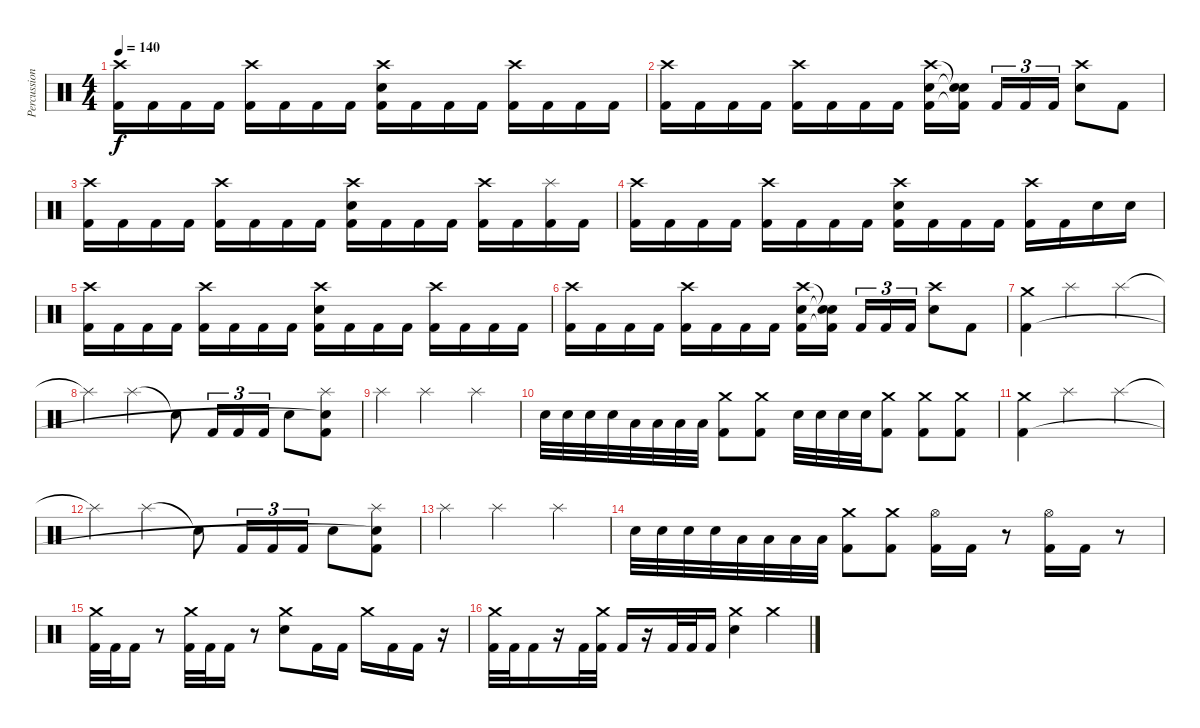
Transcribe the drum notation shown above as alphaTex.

\track ("Percussion" "Percussion") {instrument percussion}
\staff {score}
\articulation defaults
\ts (4 4)
\tempo 140
\clef neutral
\ks c
("Crash high (hit)" "Kick (hit) 2").16{dy f} "Kick (hit) 2".16 "Kick (hit) 2".16 "Kick (hit) 2".16 ("Crash high (hit)" "Kick (hit) 2").16 "Kick (hit) 2".16 "Kick (hit) 2".16 "Kick (hit) 2".16 ("Crash high (hit)" "Electric Snare (hit)" "Kick (hit) 2").16 "Kick (hit) 2".16 "Kick (hit) 2".16 "Kick (hit) 2".16 ("Crash high (hit)" "Kick (hit) 2").16 "Kick (hit) 2".16 "Kick (hit) 2".16 "Kick (hit) 2".16 |
("Crash high (hit)" "Kick (hit) 2").16 "Kick (hit) 2".16 "Kick (hit) 2".16 "Kick (hit) 2".16 ("Crash high (hit)" "Kick (hit) 2").16 "Kick (hit) 2".16 "Kick (hit) 2".16 "Kick (hit) 2".16 ("Crash high (hit)" "Electric Snare (hit)" "Kick (hit) 2").16 ("Snare (hit)"{t} "Snare (hit)"{t} "Kick (hit) 2"{t}).16{beam splitsecondary} "Kick (hit) 2".16{tu (3 2)} "Kick (hit) 2".16{tu (3 2)} "Kick (hit) 2".16{tu (3 2)} ("Crash high (hit)" "Electric Snare (hit)").8 "Kick (hit) 2".8 |
("Crash high (hit)" "Kick (hit) 2").16 "Kick (hit) 2".16 "Kick (hit) 2".16 "Kick (hit) 2".16 ("Crash high (hit)" "Kick (hit) 2").16 "Kick (hit) 2".16 "Kick (hit) 2".16 "Kick (hit) 2".16 ("Crash high (hit)" "Electric Snare (hit)" "Kick (hit) 2").16 "Kick (hit) 2".16 "Kick (hit) 2".16 "Kick (hit) 2".16 ("Crash high (hit)" "Kick (hit) 2").16 "Kick (hit) 2".16 ("Splash (hit)" "Kick (hit) 2").16 "Kick (hit) 2".16 |
("Crash high (hit)" "Kick (hit) 2").16 "Kick (hit) 2".16 "Kick (hit) 2".16 "Kick (hit) 2".16 ("Crash high (hit)" "Kick (hit) 2").16 "Kick (hit) 2".16 "Kick (hit) 2".16 "Kick (hit) 2".16 ("Crash high (hit)" "Electric Snare (hit)" "Kick (hit) 2").16 "Kick (hit) 2".16 "Kick (hit) 2".16 "Kick (hit) 2".16 ("Crash high (hit)" "Kick (hit) 2").16 "Kick (hit) 2".16 "Electric Snare (hit)".16 "Electric Snare (hit)".16 |
("Crash high (hit)" "Kick (hit) 2").16 "Kick (hit) 2".16 "Kick (hit) 2".16 "Kick (hit) 2".16 ("Crash high (hit)" "Kick (hit) 2").16 "Kick (hit) 2".16 "Kick (hit) 2".16 "Kick (hit) 2".16 ("Crash high (hit)" "Electric Snare (hit)" "Kick (hit) 2").16 "Kick (hit) 2".16 "Kick (hit) 2".16 "Kick (hit) 2".16 ("Crash high (hit)" "Kick (hit) 2").16 "Kick (hit) 2".16 "Kick (hit) 2".16 "Kick (hit) 2".16 |
("Crash high (hit)" "Kick (hit) 2").16 "Kick (hit) 2".16 "Kick (hit) 2".16 "Kick (hit) 2".16 ("Crash high (hit)" "Kick (hit) 2").16 "Kick (hit) 2".16 "Kick (hit) 2".16 "Kick (hit) 2".16 ("Crash high (hit)" "Electric Snare (hit)" "Kick (hit) 2").16 ("Snare (hit)"{t} "Snare (hit)"{t} "Kick (hit) 2"{t}).16{beam splitsecondary} "Kick (hit) 2".16{tu (3 2)} "Kick (hit) 2".16{tu (3 2)} "Kick (hit) 2".16{tu (3 2)} ("Crash high (hit)" "Electric Snare (hit)").8 "Kick (hit) 2".8 |
("Crash medium (hit)" "Kick (hit) 2").4 "Splash (hit)".2 "Splash (hit)".4 |
"Splash (hit)"{t}.4 "Splash (hit)".4 "Snare (hit)"{t}.8 "Kick (hit) 2".16{tu (3 2)} "Kick (hit) 2".16{tu (3 2)} "Kick (hit) 2".16{tu (3 2)} "Electric Snare (hit)".8 ("Splash (hit)" "Snare (hit)"{t} "Kick (hit) 2").8 |
"Splash (hit)".4 "Splash (hit)".2 "Splash (hit)".4 |
"Electric Snare (hit)".32 "Electric Snare (hit)".32 "Electric Snare (hit)".32 "Electric Snare (hit)".32 "Low Tom (hit)".32 "Low Tom (hit)".32 "Low Tom (hit)".32 "Low Tom (hit)".32 ("Crash medium (hit)" "Kick (hit) 2").8 ("Crash medium (hit)" "Kick (hit) 2").8 "Electric Snare (hit)".32 "Electric Snare (hit)".32 "Electric Snare (hit)".32 "Electric Snare (hit)".32 ("Crash medium (hit)" "Kick (hit) 2").8 ("Crash medium (hit)" "Kick (hit) 2").8 ("Crash medium (hit)" "Kick (hit) 2").8 |
("Crash medium (hit)" "Kick (hit) 2").4 "Splash (hit)".2 "Splash (hit)".4 |
"Splash (hit)"{t}.4 "Splash (hit)".4 "Snare (hit)"{t}.8 "Kick (hit) 2".16{tu (3 2)} "Kick (hit) 2".16{tu (3 2)} "Kick (hit) 2".16{tu (3 2)} "Electric Snare (hit)".8 ("Splash (hit)" "Snare (hit)"{t} "Kick (hit) 2").8 |
"Splash (hit)".4 "Splash (hit)".2 "Splash (hit)".4 |
"Electric Snare (hit)".32 "Electric Snare (hit)".32 "Electric Snare (hit)".32 "Electric Snare (hit)".32 "Low Tom (hit)".32 "Low Tom (hit)".32 "Low Tom (hit)".32 "Low Tom (hit)".32 ("Crash medium (hit)" "Kick (hit) 2").8 ("Crash medium (hit)" "Kick (hit) 2").8 ("Hi-Hat (open)" "Kick (hit) 2").16 "Kick (hit) 2".16 r.8 ("Hi-Hat (open)" "Kick (hit) 2").16 "Kick (hit) 2".16 r.8 |
("Crash medium (hit)" "Kick (hit) 2").32 "Kick (hit) 2".32 "Kick (hit) 2".16 r.8 ("Crash medium (hit)" "Kick (hit) 2").32 "Kick (hit) 2".32 "Kick (hit) 2".16 r.8 ("Crash medium (hit)" "Electric Snare (hit)").8 "Kick (hit) 2".16 "Kick (hit) 2".16 "Crash medium (hit)".16 "Kick (hit) 2".16 "Kick (hit) 2".16 r.16 |
("Crash medium (hit)" "Kick (hit) 2").32 "Kick (hit) 2".32 "Kick (hit) 2".16 r.16 "Kick (hit) 2".32 ("Crash medium (hit)" "Kick (hit) 2").32 "Kick (hit) 2".16 r.16 "Kick (hit) 2".32 "Kick (hit) 2".32 "Kick (hit) 2".16 ("Crash medium (hit)" "Electric Snare (hit)").4 "Crash medium (hit)".4
